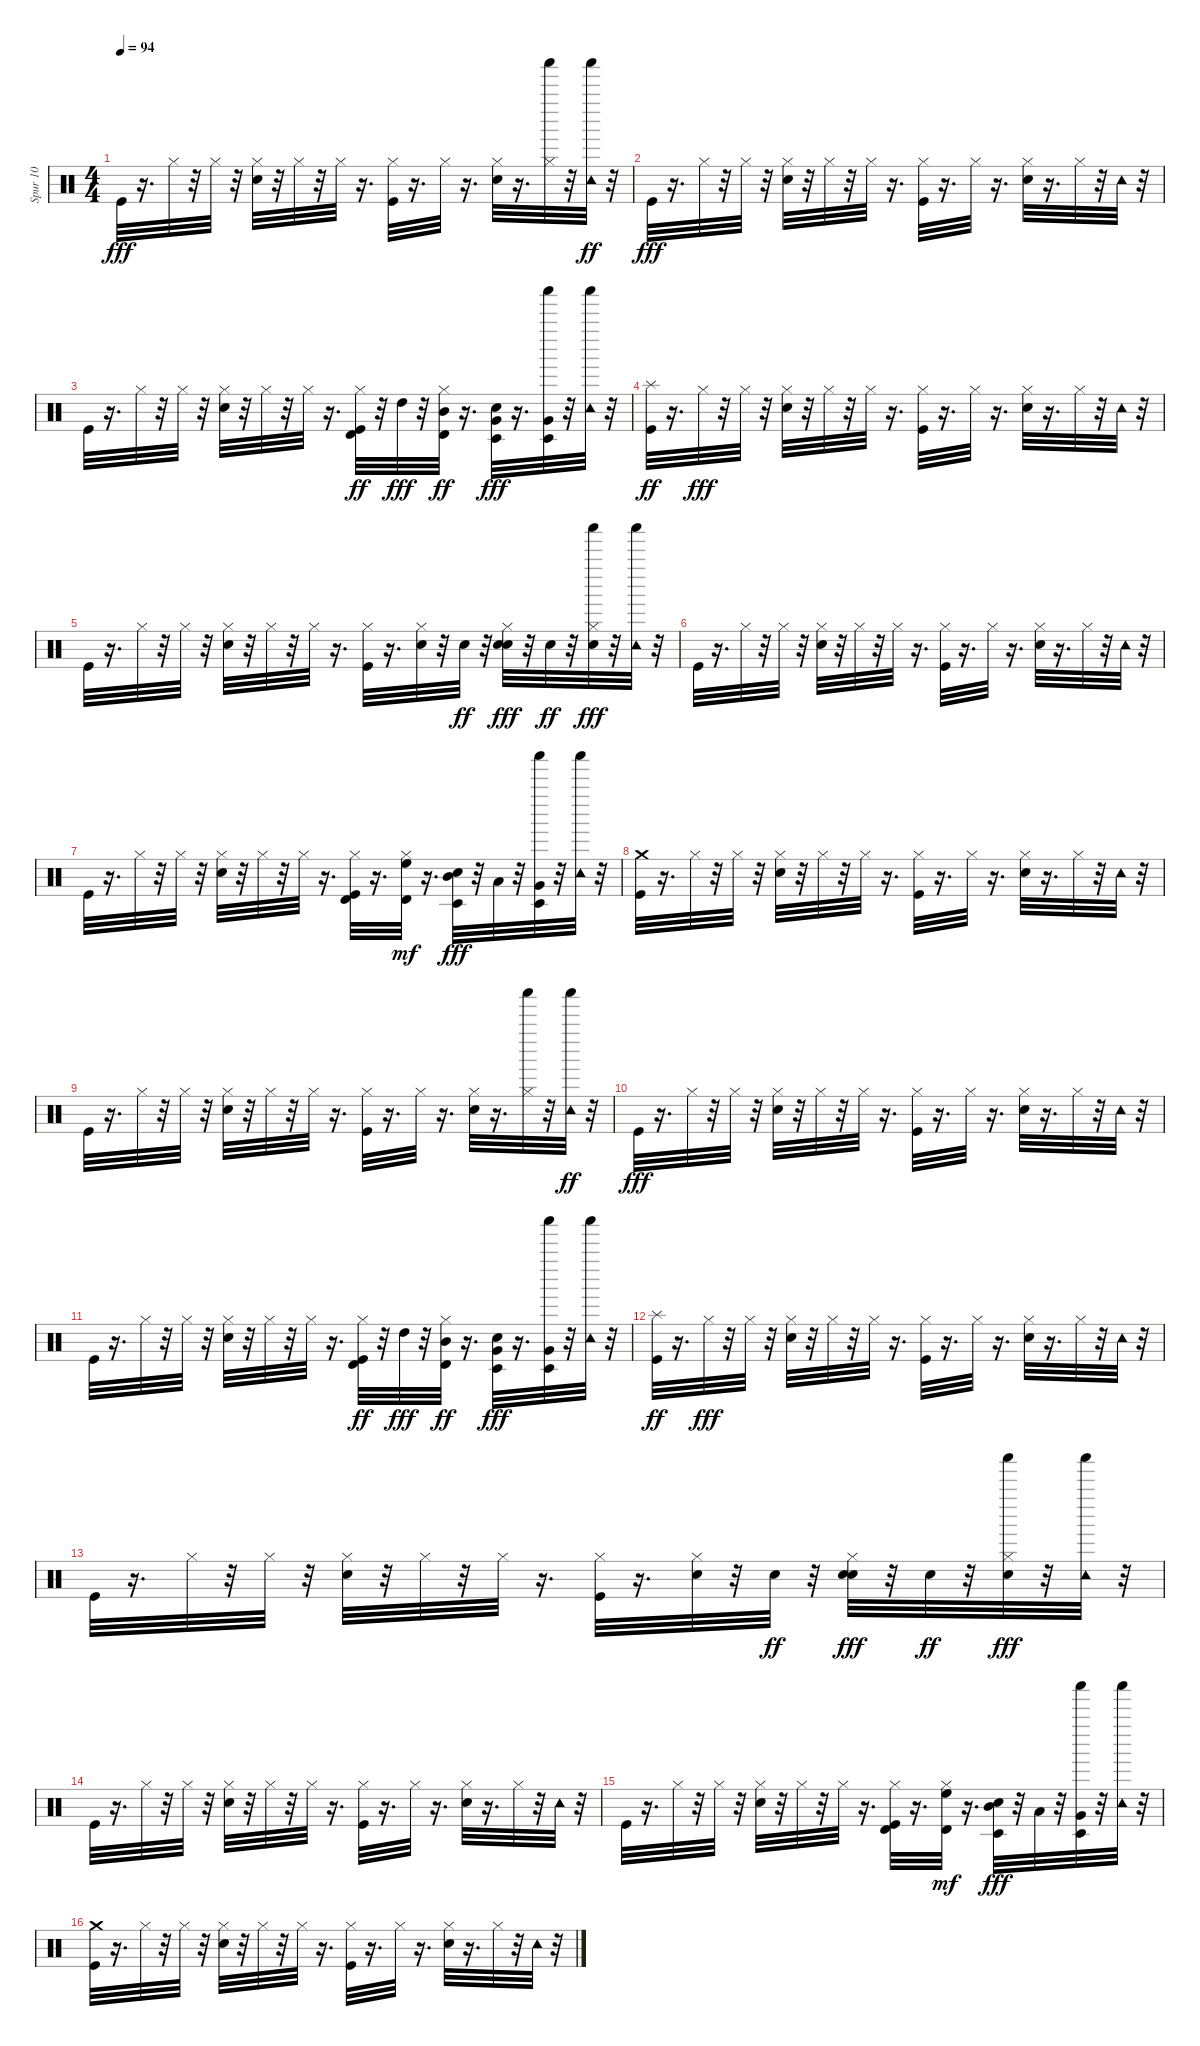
\track ("Spur 10" "Spur 10") {instrument percussion}
\staff {score}
\articulation defaults
\ts (4 4)
\tempo 94
\clef neutral
\ks c "Kick (hit)".32{dy fff}
r.16{d} "Hi-Hat (closed)".32 r.32 "Hi-Hat (closed)".32 r.32 ("Snare (hit) 2" "Hi-Hat (closed)").32 r.32 "Hi-Hat (closed)".32 r.32 "Hi-Hat (closed)".32 r.16{d} ("Kick (hit)" "Hi-Hat (closed)").32 r.16{d} "Hi-Hat (closed)".32 r.16{d} ("Snare (hit) 2" "Hi-Hat (closed)").32 r.16{d} ("Hi-Hat (closed)" "Shaker (hit)").32 r.32 ("Tambourine (hit)" "Shaker (hit)").32{dy ff} r.32 |
"Kick (hit)".32{dy fff} r.16{d} "Hi-Hat (closed)".32 r.32 "Hi-Hat (closed)".32 r.32 ("Snare (hit) 2" "Hi-Hat (closed)").32 r.32 "Hi-Hat (closed)".32 r.32 "Hi-Hat (closed)".32 r.16{d} ("Kick (hit)" "Hi-Hat (closed)").32 r.16{d} "Hi-Hat (closed)".32 r.16{d} ("Snare (hit) 2" "Hi-Hat (closed)").32 r.16{d} "Hi-Hat (closed)".32 r.32 "Tambourine (hit)".32 r.32 |
"Kick (hit)".32 r.16{d} "Hi-Hat (closed)".32 r.32 "Hi-Hat (closed)".32 r.32 ("Snare (hit) 2" "Hi-Hat (closed)").32 r.32 "Hi-Hat (closed)".32 r.32 "Hi-Hat (closed)".32 r.16{d} ("Kick (hit)" "Hi-Hat (closed)" "Timbale high (hit)").32{dy ff} r.32 "High Tom (hit)".32{dy fff} r.32 ("Mid Tom (hit)" "Hi-Hat (closed)" "Timbale high (hit)").32{dy ff} r.16{d} ("Snare (hit) 2" "Timbale low (hit)" "Very Low Tom (hit)").32{dy fff} r.16{d} ("Shaker (hit)" "Timbale low (hit)" "Very Low Tom (hit)").32 r.32 ("Tambourine (hit)" "Shaker (hit)").32 r.32 |
("Kick (hit)" "Splash (hit)").32{dy ff} r.16{d} "Hi-Hat (closed)".32{dy fff} r.32 "Hi-Hat (closed)".32 r.32 ("Snare (hit) 2" "Hi-Hat (closed)").32 r.32 "Hi-Hat (closed)".32 r.32 "Hi-Hat (closed)".32 r.16{d} ("Kick (hit)" "Hi-Hat (closed)").32 r.16{d} "Hi-Hat (closed)".32 r.16{d} ("Snare (hit) 2" "Hi-Hat (closed)").32 r.16{d} "Hi-Hat (closed)".32 r.32 "Tambourine (hit)".32 r.32 |
"Kick (hit)".32 r.16{d} "Hi-Hat (closed)".32 r.32 "Hi-Hat (closed)".32 r.32 ("Snare (hit) 2" "Hi-Hat (closed)").32 r.32 "Hi-Hat (closed)".32 r.32 "Hi-Hat (closed)".32 r.16{d} ("Kick (hit)" "Hi-Hat (closed)").32 r.16{d} ("Hand Clap (hit)" "Hi-Hat (closed)").32 r.32 "Hand Clap (hit)".32{dy ff} r.32 ("Snare (hit) 2" "Hand Clap (hit)" "Hi-Hat (closed)").32{dy fff} r.32 "Hand Clap (hit)".32{dy ff} r.32 ("Hi-Hat (closed)" "Shaker (hit)" "Hand Clap (hit)").32{dy fff} r.32 ("Tambourine (hit)" "Shaker (hit)").32 r.32 |
"Kick (hit)".32 r.16{d} "Hi-Hat (closed)".32 r.32 "Hi-Hat (closed)".32 r.32 ("Snare (hit) 2" "Hi-Hat (closed)").32 r.32 "Hi-Hat (closed)".32 r.32 "Hi-Hat (closed)".32 r.16{d} ("Kick (hit)" "Hi-Hat (closed)").32 r.16{d} "Hi-Hat (closed)".32 r.16{d} ("Snare (hit) 2" "Hi-Hat (closed)").32 r.16{d} "Hi-Hat (closed)".32 r.32 "Tambourine (hit)".32 r.32 |
"Kick (hit)".32 r.16{d} "Hi-Hat (closed)".32 r.32 "Hi-Hat (closed)".32 r.32 ("Snare (hit) 2" "Hi-Hat (closed)").32 r.32 "Hi-Hat (closed)".32 r.32 "Hi-Hat (closed)".32 r.16{d} ("Kick (hit)" "Hi-Hat (closed)" "Timbale high (hit)").32 r.16{d} ("Hi-Hat (closed)" "High Floor Tom (hit)" "Timbale high (hit)").32{dy mf} r.16{d} ("Snare (hit) 2" "Mid Tom (hit)" "Timbale low (hit)").32{dy fff} r.32 "Low Tom (hit)".32 r.32 ("Shaker (hit)" "Very Low Tom (hit)" "Timbale low (hit)").32 r.32 ("Tambourine (hit)" "Shaker (hit)").32 r.32 |
("Kick (hit)" "Crash medium (hit)").32 r.16{d} "Hi-Hat (closed)".32 r.32 "Hi-Hat (closed)".32 r.32 ("Snare (hit) 2" "Hi-Hat (closed)").32 r.32 "Hi-Hat (closed)".32 r.32 "Hi-Hat (closed)".32 r.16{d} ("Kick (hit)" "Hi-Hat (closed)").32 r.16{d} "Hi-Hat (closed)".32 r.16{d} ("Snare (hit) 2" "Hi-Hat (closed)").32 r.16{d} "Hi-Hat (closed)".32 r.32 "Tambourine (hit)".32 r.32 |
"Kick (hit)".32 r.16{d} "Hi-Hat (closed)".32 r.32 "Hi-Hat (closed)".32 r.32 ("Snare (hit) 2" "Hi-Hat (closed)").32 r.32 "Hi-Hat (closed)".32 r.32 "Hi-Hat (closed)".32 r.16{d} ("Kick (hit)" "Hi-Hat (closed)").32 r.16{d} "Hi-Hat (closed)".32 r.16{d} ("Snare (hit) 2" "Hi-Hat (closed)").32 r.16{d} ("Hi-Hat (closed)" "Shaker (hit)").32 r.32 ("Tambourine (hit)" "Shaker (hit)").32{dy ff} r.32 |
"Kick (hit)".32{dy fff} r.16{d} "Hi-Hat (closed)".32 r.32 "Hi-Hat (closed)".32 r.32 ("Snare (hit) 2" "Hi-Hat (closed)").32 r.32 "Hi-Hat (closed)".32 r.32 "Hi-Hat (closed)".32 r.16{d} ("Kick (hit)" "Hi-Hat (closed)").32 r.16{d} "Hi-Hat (closed)".32 r.16{d} ("Snare (hit) 2" "Hi-Hat (closed)").32 r.16{d} "Hi-Hat (closed)".32 r.32 "Tambourine (hit)".32 r.32 |
"Kick (hit)".32 r.16{d} "Hi-Hat (closed)".32 r.32 "Hi-Hat (closed)".32 r.32 ("Snare (hit) 2" "Hi-Hat (closed)").32 r.32 "Hi-Hat (closed)".32 r.32 "Hi-Hat (closed)".32 r.16{d} ("Kick (hit)" "Hi-Hat (closed)" "Timbale high (hit)").32{dy ff} r.32 "High Tom (hit)".32{dy fff} r.32 ("Mid Tom (hit)" "Hi-Hat (closed)" "Timbale high (hit)").32{dy ff} r.16{d} ("Snare (hit) 2" "Timbale low (hit)" "Very Low Tom (hit)").32{dy fff} r.16{d} ("Shaker (hit)" "Timbale low (hit)" "Very Low Tom (hit)").32 r.32 ("Tambourine (hit)" "Shaker (hit)").32 r.32 |
("Kick (hit)" "Splash (hit)").32{dy ff} r.16{d} "Hi-Hat (closed)".32{dy fff} r.32 "Hi-Hat (closed)".32 r.32 ("Snare (hit) 2" "Hi-Hat (closed)").32 r.32 "Hi-Hat (closed)".32 r.32 "Hi-Hat (closed)".32 r.16{d} ("Kick (hit)" "Hi-Hat (closed)").32 r.16{d} "Hi-Hat (closed)".32 r.16{d} ("Snare (hit) 2" "Hi-Hat (closed)").32 r.16{d} "Hi-Hat (closed)".32 r.32 "Tambourine (hit)".32 r.32 |
"Kick (hit)".32 r.16{d} "Hi-Hat (closed)".32 r.32 "Hi-Hat (closed)".32 r.32 ("Snare (hit) 2" "Hi-Hat (closed)").32 r.32 "Hi-Hat (closed)".32 r.32 "Hi-Hat (closed)".32 r.16{d} ("Kick (hit)" "Hi-Hat (closed)").32 r.16{d} ("Hand Clap (hit)" "Hi-Hat (closed)").32 r.32 "Hand Clap (hit)".32{dy ff} r.32 ("Snare (hit) 2" "Hand Clap (hit)" "Hi-Hat (closed)").32{dy fff} r.32 "Hand Clap (hit)".32{dy ff} r.32 ("Hi-Hat (closed)" "Shaker (hit)" "Hand Clap (hit)").32{dy fff} r.32 ("Tambourine (hit)" "Shaker (hit)").32 r.32 |
"Kick (hit)".32 r.16{d} "Hi-Hat (closed)".32 r.32 "Hi-Hat (closed)".32 r.32 ("Snare (hit) 2" "Hi-Hat (closed)").32 r.32 "Hi-Hat (closed)".32 r.32 "Hi-Hat (closed)".32 r.16{d} ("Kick (hit)" "Hi-Hat (closed)").32 r.16{d} "Hi-Hat (closed)".32 r.16{d} ("Snare (hit) 2" "Hi-Hat (closed)").32 r.16{d} "Hi-Hat (closed)".32 r.32 "Tambourine (hit)".32 r.32 |
"Kick (hit)".32 r.16{d} "Hi-Hat (closed)".32 r.32 "Hi-Hat (closed)".32 r.32 ("Snare (hit) 2" "Hi-Hat (closed)").32 r.32 "Hi-Hat (closed)".32 r.32 "Hi-Hat (closed)".32 r.16{d} ("Kick (hit)" "Hi-Hat (closed)" "Timbale high (hit)").32 r.16{d} ("Hi-Hat (closed)" "High Floor Tom (hit)" "Timbale high (hit)").32{dy mf} r.16{d} ("Snare (hit) 2" "Mid Tom (hit)" "Timbale low (hit)").32{dy fff} r.32 "Low Tom (hit)".32 r.32 ("Shaker (hit)" "Very Low Tom (hit)" "Timbale low (hit)").32 r.32 ("Tambourine (hit)" "Shaker (hit)").32 r.32 |
("Kick (hit)" "Crash medium (hit)").32 r.16{d} "Hi-Hat (closed)".32 r.32 "Hi-Hat (closed)".32 r.32 ("Snare (hit) 2" "Hi-Hat (closed)").32 r.32 "Hi-Hat (closed)".32 r.32 "Hi-Hat (closed)".32 r.16{d} ("Kick (hit)" "Hi-Hat (closed)").32 r.16{d} "Hi-Hat (closed)".32 r.16{d} ("Snare (hit) 2" "Hi-Hat (closed)").32 r.16{d} "Hi-Hat (closed)".32 r.32 "Tambourine (hit)".32 r.32
